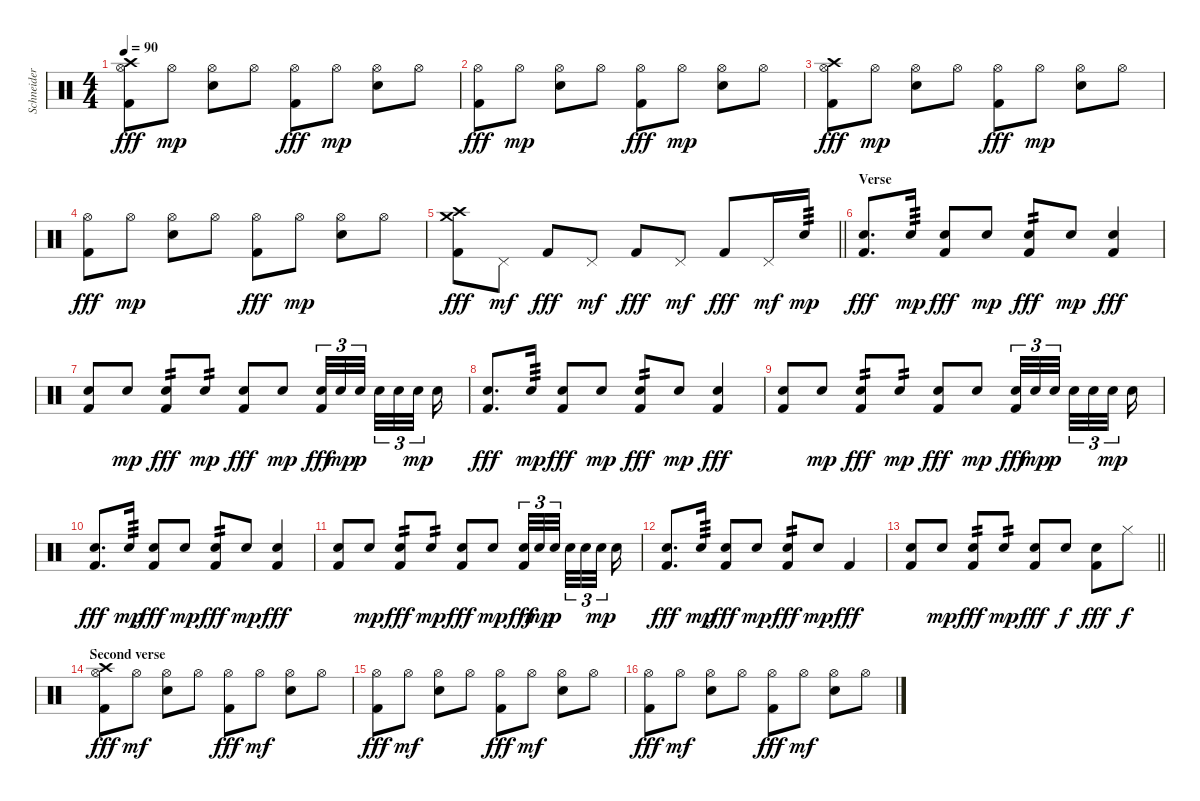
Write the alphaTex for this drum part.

\track ("Schneider" "Schneider") {instrument percussion}
\staff {score}
\articulation defaults
\ts (4 4)
\tempo 90
\clef neutral
\ks c
("Crash high (hit)" "Hi-Hat (open)" "Kick (hit) 2").8{dy fff} "Hi-Hat (open)".8{dy mp} ("Hi-Hat (open)" "Electric Snare (hit)").8 "Hi-Hat (open)".8 ("Hi-Hat (open)" "Kick (hit) 2").8{dy fff} "Hi-Hat (open)".8{dy mp} ("Hi-Hat (open)" "Electric Snare (hit)").8 "Hi-Hat (open)".8 |
("Hi-Hat (open)" "Kick (hit) 2").8{dy fff} "Hi-Hat (open)".8{dy mp} ("Hi-Hat (open)" "Electric Snare (hit)").8 "Hi-Hat (open)".8 ("Hi-Hat (open)" "Kick (hit) 2").8{dy fff} "Hi-Hat (open)".8{dy mp} ("Hi-Hat (open)" "Electric Snare (hit)").8 "Hi-Hat (open)".8 |
("Crash high (hit)" "Hi-Hat (open)" "Kick (hit) 2").8{dy fff} "Hi-Hat (open)".8{dy mp} ("Hi-Hat (open)" "Electric Snare (hit)").8 "Hi-Hat (open)".8 ("Hi-Hat (open)" "Kick (hit) 2").8{dy fff} "Hi-Hat (open)".8{dy mp} ("Hi-Hat (open)" "Electric Snare (hit)").8 "Hi-Hat (open)".8 |
("Hi-Hat (open)" "Kick (hit) 2").8{dy fff} "Hi-Hat (open)".8{dy mp} ("Hi-Hat (open)" "Electric Snare (hit)").8 "Hi-Hat (open)".8 ("Hi-Hat (open)" "Kick (hit) 2").8{dy fff} "Hi-Hat (open)".8{dy mp} ("Hi-Hat (open)" "Electric Snare (hit)").8 "Hi-Hat (open)".8 |
\barLineRight lightlight
("Crash high (hit)" "Crash medium (hit)" "Kick (hit) 2").8{dy fff} "Pedal Hi-Hat (hit)".8{dy mf} "Kick (hit) 2".8{dy fff} "Pedal Hi-Hat (hit)".8{dy mf} "Kick (hit) 2".8{dy fff} "Pedal Hi-Hat (hit)".8{dy mf} "Kick (hit) 2".8{dy fff} "Pedal Hi-Hat (hit)".16{dy mf} "Electric Snare (hit)".16{tp 3 dy mp} |
\section ("" "Verse")
("Electric Snare (hit)" "Kick (hit) 2").8{d dy fff} "Electric Snare (hit)".16{tp 3 dy mp} ("Electric Snare (hit)" "Kick (hit) 2").8{dy fff} "Electric Snare (hit)".8{dy mp} ("Electric Snare (hit)" "Kick (hit) 2").8{tp 2 dy fff} "Electric Snare (hit)".8{dy mp} ("Electric Snare (hit)" "Kick (hit) 2").4{dy fff} |
("Electric Snare (hit)" "Kick (hit) 2").8 "Electric Snare (hit)".8{dy mp} ("Electric Snare (hit)" "Kick (hit) 2").8{tp 2 dy fff} "Electric Snare (hit)".8{tp 2 dy mp} ("Electric Snare (hit)" "Kick (hit) 2").8{dy fff} "Electric Snare (hit)".8{dy mp} ("Electric Snare (hit)" "Kick (hit) 2").32{tu (3 2) dy fff} "Electric Snare (hit)".32{tu (3 2) dy mp} "Electric Snare (hit)".32{tu (3 2) dy p beam splitsecondary} "Electric Snare (hit)".32{tu (3 2)} "Electric Snare (hit)".32{tu (3 2)} "Electric Snare (hit)".32{tu (3 2) dy mp beam splitsecondary} "Electric Snare (hit)".16 |
("Electric Snare (hit)" "Kick (hit) 2").8{d dy fff} "Electric Snare (hit)".16{tp 3 dy mp} ("Electric Snare (hit)" "Kick (hit) 2").8{dy fff} "Electric Snare (hit)".8{dy mp} ("Electric Snare (hit)" "Kick (hit) 2").8{tp 2 dy fff} "Electric Snare (hit)".8{dy mp} ("Electric Snare (hit)" "Kick (hit) 2").4{dy fff} |
("Electric Snare (hit)" "Kick (hit) 2").8 "Electric Snare (hit)".8{dy mp} ("Electric Snare (hit)" "Kick (hit) 2").8{tp 2 dy fff} "Electric Snare (hit)".8{tp 2 dy mp} ("Electric Snare (hit)" "Kick (hit) 2").8{dy fff} "Electric Snare (hit)".8{dy mp} ("Electric Snare (hit)" "Kick (hit) 2").32{tu (3 2) dy fff} "Electric Snare (hit)".32{tu (3 2) dy mp} "Electric Snare (hit)".32{tu (3 2) dy p beam splitsecondary} "Electric Snare (hit)".32{tu (3 2)} "Electric Snare (hit)".32{tu (3 2)} "Electric Snare (hit)".32{tu (3 2) dy mp beam splitsecondary} "Electric Snare (hit)".16 |
("Electric Snare (hit)" "Kick (hit) 2").8{d dy fff} "Electric Snare (hit)".16{tp 3 dy mp} ("Electric Snare (hit)" "Kick (hit) 2").8{dy fff} "Electric Snare (hit)".8{dy mp} ("Electric Snare (hit)" "Kick (hit) 2").8{tp 2 dy fff} "Electric Snare (hit)".8{dy mp} ("Electric Snare (hit)" "Kick (hit) 2").4{dy fff} |
("Electric Snare (hit)" "Kick (hit) 2").8 "Electric Snare (hit)".8{dy mp} ("Electric Snare (hit)" "Kick (hit) 2").8{tp 2 dy fff} "Electric Snare (hit)".8{tp 2 dy mp} ("Electric Snare (hit)" "Kick (hit) 2").8{dy fff} "Electric Snare (hit)".8{dy mp} ("Electric Snare (hit)" "Kick (hit) 2").32{tu (3 2) dy fff} "Electric Snare (hit)".32{tu (3 2) dy mp} "Electric Snare (hit)".32{tu (3 2) dy p beam splitsecondary} "Electric Snare (hit)".32{tu (3 2)} "Electric Snare (hit)".32{tu (3 2)} "Electric Snare (hit)".32{tu (3 2) dy mp beam splitsecondary} "Electric Snare (hit)".16 |
("Electric Snare (hit)" "Kick (hit) 2").8{d dy fff} "Electric Snare (hit)".16{tp 3 dy mp} ("Electric Snare (hit)" "Kick (hit) 2").8{dy fff} "Electric Snare (hit)".8{dy mp} ("Electric Snare (hit)" "Kick (hit) 2").8{tp 2 dy fff} "Electric Snare (hit)".8{dy mp} "Kick (hit) 2".4{dy fff} |
\barLineRight lightlight
("Electric Snare (hit)" "Kick (hit) 2").8 "Electric Snare (hit)".8{dy mp} ("Electric Snare (hit)" "Kick (hit) 2").8{tp 2 dy fff} "Electric Snare (hit)".8{tp 2 dy mp} ("Electric Snare (hit)" "Kick (hit) 2").8{dy fff} "Electric Snare (hit)".8{dy f} ("Electric Snare (hit)" "Kick (hit) 2").8{dy fff} "Hi-Hat (closed)".8{dy f} |
\section ("" "Second verse")
("Crash high (hit)" "Hi-Hat (open)" "Kick (hit) 2").8{dy fff} "Hi-Hat (open)".8{dy mf} ("Hi-Hat (open)" "Electric Snare (hit)").8 "Hi-Hat (open)".8 ("Hi-Hat (open)" "Kick (hit) 2").8{dy fff} "Hi-Hat (open)".8{dy mf} ("Hi-Hat (open)" "Electric Snare (hit)").8 "Hi-Hat (open)".8 |
("Hi-Hat (open)" "Kick (hit) 2").8{dy fff} "Hi-Hat (open)".8{dy mf} ("Hi-Hat (open)" "Electric Snare (hit)").8 "Hi-Hat (open)".8 ("Hi-Hat (open)" "Kick (hit) 2").8{dy fff} "Hi-Hat (open)".8{dy mf} ("Hi-Hat (open)" "Electric Snare (hit)").8 "Hi-Hat (open)".8 |
("Hi-Hat (open)" "Kick (hit) 2").8{dy fff} "Hi-Hat (open)".8{dy mf} ("Hi-Hat (open)" "Electric Snare (hit)").8 "Hi-Hat (open)".8 ("Hi-Hat (open)" "Kick (hit) 2").8{dy fff} "Hi-Hat (open)".8{dy mf} ("Hi-Hat (open)" "Electric Snare (hit)").8 "Hi-Hat (open)".8
